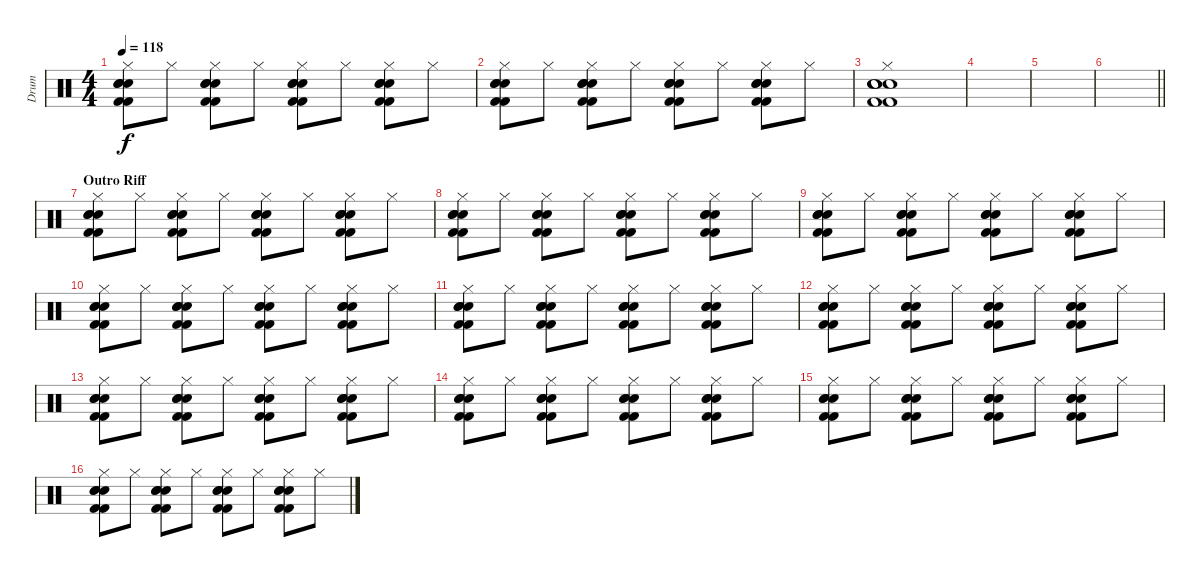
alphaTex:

\track ("Drum" "Drum") {instrument percussion}
\staff {score}
\articulation defaults
\ts (4 4)
\tempo 118
\clef neutral
\ks c
("Hi-Hat (closed)" "Kick (hit) 2" "Kick (hit) 2" "Snare (hit) 2" "Snare (hit) 2" "Snare (hit) 2").8{dy f} "Hi-Hat (closed)".8 ("Hi-Hat (closed)" "Kick (hit) 2" "Kick (hit) 2" "Snare (hit) 2" "Snare (hit) 2" "Snare (hit) 2").8 "Hi-Hat (closed)".8 ("Hi-Hat (closed)" "Kick (hit) 2" "Kick (hit) 2" "Snare (hit) 2" "Snare (hit) 2" "Snare (hit) 2").8 "Hi-Hat (closed)".8 ("Hi-Hat (closed)" "Kick (hit) 2" "Kick (hit) 2" "Snare (hit) 2" "Snare (hit) 2" "Snare (hit) 2").8 "Hi-Hat (closed)".8 |
("Hi-Hat (closed)" "Kick (hit) 2" "Kick (hit) 2" "Snare (hit) 2" "Snare (hit) 2" "Snare (hit) 2").8 "Hi-Hat (closed)".8 ("Hi-Hat (closed)" "Kick (hit) 2" "Kick (hit) 2" "Snare (hit) 2" "Snare (hit) 2" "Snare (hit) 2").8 "Hi-Hat (closed)".8 ("Hi-Hat (closed)" "Kick (hit) 2" "Kick (hit) 2" "Snare (hit) 2" "Snare (hit) 2" "Snare (hit) 2").8 "Hi-Hat (closed)".8 ("Hi-Hat (closed)" "Kick (hit) 2" "Kick (hit) 2" "Snare (hit) 2" "Snare (hit) 2" "Snare (hit) 2").8 "Hi-Hat (closed)".8 |
("Hi-Hat (closed)" "Kick (hit) 2" "Kick (hit) 2" "Snare (hit) 2" "Snare (hit) 2" "Snare (hit) 2").1 |
|
|
\barLineRight lightlight
|
\section ("" "Outro Riff")
("Hi-Hat (closed)" "Kick (hit) 2" "Kick (hit) 2" "Snare (hit) 2" "Snare (hit) 2" "Snare (hit) 2").8{volume 14} "Hi-Hat (closed)".8 ("Hi-Hat (closed)" "Kick (hit) 2" "Kick (hit) 2" "Snare (hit) 2" "Snare (hit) 2" "Snare (hit) 2").8 "Hi-Hat (closed)".8 ("Hi-Hat (closed)" "Kick (hit) 2" "Kick (hit) 2" "Snare (hit) 2" "Snare (hit) 2" "Snare (hit) 2").8 "Hi-Hat (closed)".8 ("Hi-Hat (closed)" "Kick (hit) 2" "Kick (hit) 2" "Snare (hit) 2" "Snare (hit) 2" "Snare (hit) 2").8 "Hi-Hat (closed)".8 |
("Hi-Hat (closed)" "Kick (hit) 2" "Kick (hit) 2" "Snare (hit) 2" "Snare (hit) 2" "Snare (hit) 2").8 "Hi-Hat (closed)".8 ("Hi-Hat (closed)" "Kick (hit) 2" "Kick (hit) 2" "Snare (hit) 2" "Snare (hit) 2" "Snare (hit) 2").8 "Hi-Hat (closed)".8 ("Hi-Hat (closed)" "Kick (hit) 2" "Kick (hit) 2" "Snare (hit) 2" "Snare (hit) 2" "Snare (hit) 2").8 "Hi-Hat (closed)".8 ("Hi-Hat (closed)" "Kick (hit) 2" "Kick (hit) 2" "Snare (hit) 2" "Snare (hit) 2" "Snare (hit) 2").8 "Hi-Hat (closed)".8 |
("Hi-Hat (closed)" "Kick (hit) 2" "Kick (hit) 2" "Snare (hit) 2" "Snare (hit) 2" "Snare (hit) 2").8 "Hi-Hat (closed)".8 ("Hi-Hat (closed)" "Kick (hit) 2" "Kick (hit) 2" "Snare (hit) 2" "Snare (hit) 2" "Snare (hit) 2").8 "Hi-Hat (closed)".8 ("Hi-Hat (closed)" "Kick (hit) 2" "Kick (hit) 2" "Snare (hit) 2" "Snare (hit) 2" "Snare (hit) 2").8 "Hi-Hat (closed)".8 ("Hi-Hat (closed)" "Kick (hit) 2" "Kick (hit) 2" "Snare (hit) 2" "Snare (hit) 2" "Snare (hit) 2").8 "Hi-Hat (closed)".8 |
("Hi-Hat (closed)" "Kick (hit) 2" "Kick (hit) 2" "Snare (hit) 2" "Snare (hit) 2" "Snare (hit) 2").8 "Hi-Hat (closed)".8 ("Hi-Hat (closed)" "Kick (hit) 2" "Kick (hit) 2" "Snare (hit) 2" "Snare (hit) 2" "Snare (hit) 2").8 "Hi-Hat (closed)".8 ("Hi-Hat (closed)" "Kick (hit) 2" "Kick (hit) 2" "Snare (hit) 2" "Snare (hit) 2" "Snare (hit) 2").8 "Hi-Hat (closed)".8 ("Hi-Hat (closed)" "Kick (hit) 2" "Kick (hit) 2" "Snare (hit) 2" "Snare (hit) 2" "Snare (hit) 2").8 "Hi-Hat (closed)".8 |
("Hi-Hat (closed)" "Kick (hit) 2" "Kick (hit) 2" "Snare (hit) 2" "Snare (hit) 2" "Snare (hit) 2").8 "Hi-Hat (closed)".8 ("Hi-Hat (closed)" "Kick (hit) 2" "Kick (hit) 2" "Snare (hit) 2" "Snare (hit) 2" "Snare (hit) 2").8 "Hi-Hat (closed)".8 ("Hi-Hat (closed)" "Kick (hit) 2" "Kick (hit) 2" "Snare (hit) 2" "Snare (hit) 2" "Snare (hit) 2").8 "Hi-Hat (closed)".8 ("Hi-Hat (closed)" "Kick (hit) 2" "Kick (hit) 2" "Snare (hit) 2" "Snare (hit) 2" "Snare (hit) 2").8 "Hi-Hat (closed)".8 |
("Hi-Hat (closed)" "Kick (hit) 2" "Kick (hit) 2" "Snare (hit) 2" "Snare (hit) 2" "Snare (hit) 2").8{volume 0} "Hi-Hat (closed)".8 ("Hi-Hat (closed)" "Kick (hit) 2" "Kick (hit) 2" "Snare (hit) 2" "Snare (hit) 2" "Snare (hit) 2").8 "Hi-Hat (closed)".8 ("Hi-Hat (closed)" "Kick (hit) 2" "Kick (hit) 2" "Snare (hit) 2" "Snare (hit) 2" "Snare (hit) 2").8 "Hi-Hat (closed)".8 ("Hi-Hat (closed)" "Kick (hit) 2" "Kick (hit) 2" "Snare (hit) 2" "Snare (hit) 2" "Snare (hit) 2").8 "Hi-Hat (closed)".8 |
("Hi-Hat (closed)" "Kick (hit) 2" "Kick (hit) 2" "Snare (hit) 2" "Snare (hit) 2" "Snare (hit) 2").8 "Hi-Hat (closed)".8 ("Hi-Hat (closed)" "Kick (hit) 2" "Kick (hit) 2" "Snare (hit) 2" "Snare (hit) 2" "Snare (hit) 2").8 "Hi-Hat (closed)".8 ("Hi-Hat (closed)" "Kick (hit) 2" "Kick (hit) 2" "Snare (hit) 2" "Snare (hit) 2" "Snare (hit) 2").8 "Hi-Hat (closed)".8 ("Hi-Hat (closed)" "Kick (hit) 2" "Kick (hit) 2" "Snare (hit) 2" "Snare (hit) 2" "Snare (hit) 2").8 "Hi-Hat (closed)".8 |
("Hi-Hat (closed)" "Kick (hit) 2" "Kick (hit) 2" "Snare (hit) 2" "Snare (hit) 2" "Snare (hit) 2").8 "Hi-Hat (closed)".8 ("Hi-Hat (closed)" "Kick (hit) 2" "Kick (hit) 2" "Snare (hit) 2" "Snare (hit) 2" "Snare (hit) 2").8 "Hi-Hat (closed)".8 ("Hi-Hat (closed)" "Kick (hit) 2" "Kick (hit) 2" "Snare (hit) 2" "Snare (hit) 2" "Snare (hit) 2").8 "Hi-Hat (closed)".8 ("Hi-Hat (closed)" "Kick (hit) 2" "Kick (hit) 2" "Snare (hit) 2" "Snare (hit) 2" "Snare (hit) 2").8 "Hi-Hat (closed)".8 |
("Hi-Hat (closed)" "Kick (hit) 2" "Kick (hit) 2" "Snare (hit) 2" "Snare (hit) 2" "Snare (hit) 2").8 "Hi-Hat (closed)".8 ("Hi-Hat (closed)" "Kick (hit) 2" "Kick (hit) 2" "Snare (hit) 2" "Snare (hit) 2" "Snare (hit) 2").8 "Hi-Hat (closed)".8 ("Hi-Hat (closed)" "Kick (hit) 2" "Kick (hit) 2" "Snare (hit) 2" "Snare (hit) 2" "Snare (hit) 2").8 "Hi-Hat (closed)".8 ("Hi-Hat (closed)" "Kick (hit) 2" "Kick (hit) 2" "Snare (hit) 2" "Snare (hit) 2" "Snare (hit) 2").8 "Hi-Hat (closed)".8 |
("Hi-Hat (closed)" "Kick (hit) 2" "Kick (hit) 2" "Snare (hit) 2" "Snare (hit) 2" "Snare (hit) 2").8 "Hi-Hat (closed)".8 ("Hi-Hat (closed)" "Kick (hit) 2" "Kick (hit) 2" "Snare (hit) 2" "Snare (hit) 2" "Snare (hit) 2").8 "Hi-Hat (closed)".8 ("Hi-Hat (closed)" "Kick (hit) 2" "Kick (hit) 2" "Snare (hit) 2" "Snare (hit) 2" "Snare (hit) 2").8 "Hi-Hat (closed)".8 ("Hi-Hat (closed)" "Kick (hit) 2" "Kick (hit) 2" "Snare (hit) 2" "Snare (hit) 2" "Snare (hit) 2").8 "Hi-Hat (closed)".8
